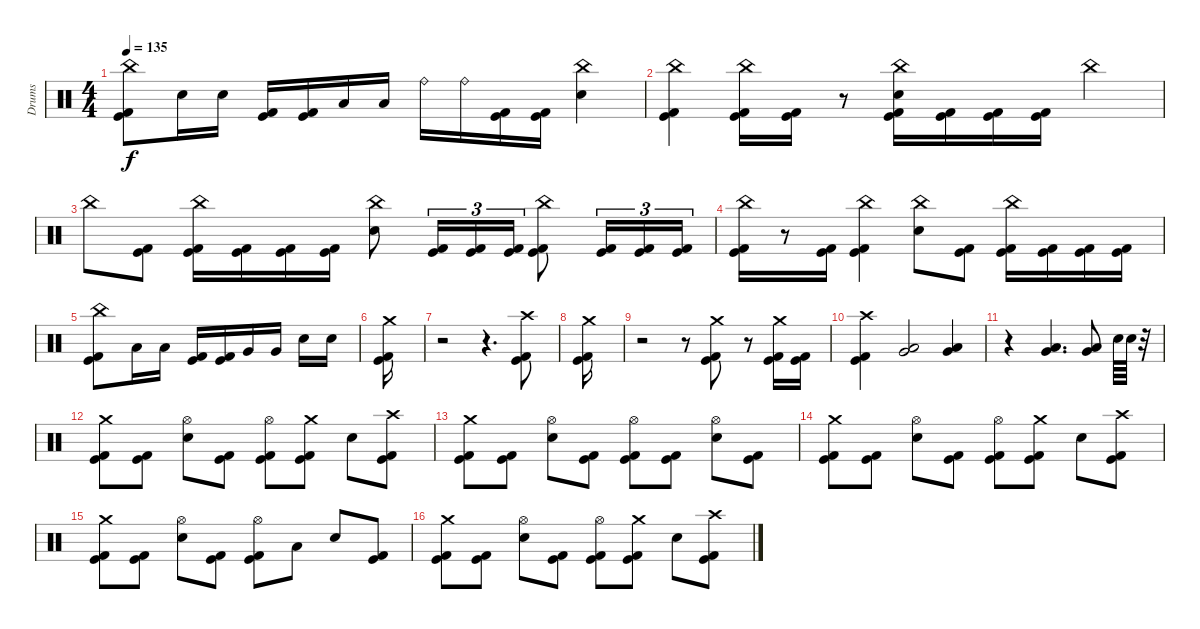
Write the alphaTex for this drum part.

\track ("Drums" "Drums") {instrument percussion}
\staff {score}
\articulation defaults
\ts (4 4)
\tempo 135
\clef neutral
\ks c
("China (hit)" "Kick (hit)" "Kick (hit) 2").8{dy f} "Electric Snare (hit)".16 "Electric Snare (hit)".16 ("Kick (hit)" "Kick (hit) 2").16 ("Kick (hit)" "Kick (hit) 2").16 "Low Tom (hit)".16 "Low Tom (hit)".16 "Ride (bell)".16 "Ride (bell)".16 ("Kick (hit)" "Kick (hit) 2").16 ("Kick (hit)" "Kick (hit) 2").16 ("China (hit)" "Electric Snare (hit)").4 |
("China (hit)" "Kick (hit)" "Kick (hit) 2").4 ("China (hit)" "Kick (hit)" "Kick (hit) 2").16 ("Kick (hit)" "Kick (hit) 2").16 r.8 ("China (hit)" "Electric Snare (hit)" "Kick (hit)" "Kick (hit) 2").16 ("Kick (hit)" "Kick (hit) 2").16 ("Kick (hit)" "Kick (hit) 2").16 ("Kick (hit)" "Kick (hit) 2").16 "China (hit)".4 |
"China (hit)".8 ("Kick (hit)" "Kick (hit) 2").8 ("China (hit)" "Kick (hit)" "Kick (hit) 2").16 ("Kick (hit)" "Kick (hit) 2").16 ("Kick (hit)" "Kick (hit) 2").16 ("Kick (hit)" "Kick (hit) 2").16 ("China (hit)" "Electric Snare (hit)").8 ("Kick (hit)" "Kick (hit) 2").16{tu (3 2)} ("Kick (hit)" "Kick (hit) 2").16{tu (3 2)} ("Kick (hit)" "Kick (hit) 2").16{tu (3 2)} ("China (hit)" "Kick (hit)" "Kick (hit) 2").8 ("Kick (hit)" "Kick (hit) 2").16{tu (3 2)} ("Kick (hit)" "Kick (hit) 2").16{tu (3 2)} ("Kick (hit)" "Kick (hit) 2").16{tu (3 2)} |
("China (hit)" "Kick (hit)" "Kick (hit) 2").16 r.8 ("Kick (hit)" "Kick (hit) 2").16 ("China (hit)" "Kick (hit)" "Kick (hit) 2").4 ("China (hit)" "Electric Snare (hit)").8 ("Kick (hit)" "Kick (hit) 2").8 ("China (hit)" "Kick (hit)" "Kick (hit) 2").16 ("Kick (hit)" "Kick (hit) 2").16 ("Kick (hit)" "Kick (hit) 2").16 ("Kick (hit)" "Kick (hit) 2").16 |
("China (hit)" "Kick (hit)" "Kick (hit) 2").8 "Low Tom (hit)".16 "Low Tom (hit)".16 ("Kick (hit)" "Kick (hit) 2").16 ("Kick (hit)" "Kick (hit) 2").16 "Very Low Tom (hit)".16 "Very Low Tom (hit)".16 "Electric Snare (hit)".16 "Electric Snare (hit)".16 |
("Crash medium (hit)" "Kick (hit)" "Kick (hit) 2").16 |
r.2 r.4{d} ("Crash high (hit)" "Kick (hit)" "Kick (hit) 2").8 |
("Crash medium (hit)" "Kick (hit)" "Kick (hit) 2").16 |
r.2 r.8 ("Crash medium (hit)" "Kick (hit)" "Kick (hit) 2").8 r.8 ("Crash medium (hit)" "Kick (hit)" "Kick (hit) 2").16 ("Kick (hit)" "Kick (hit) 2").16 |
("Crash high (hit)" "Kick (hit)" "Kick (hit) 2").4 ("Low Tom (hit)" "Very Low Tom (hit)").2 ("Low Tom (hit)" "Very Low Tom (hit)").4 |
r.4 ("Low Tom (hit)" "Very Low Tom (hit)").4{d} ("Low Tom (hit)" "Very Low Tom (hit)").8 "Electric Snare (hit)".64 "Electric Snare (hit)".64 r.32 |
("Crash medium (hit)" "Kick (hit)" "Kick (hit) 2").8 ("Kick (hit)" "Kick (hit) 2").8 ("Hi-Hat (open)" "Electric Snare (hit)").8 ("Kick (hit)" "Kick (hit) 2").8 ("Hi-Hat (open)" "Kick (hit)" "Kick (hit) 2").8 ("Crash medium (hit)" "Kick (hit)" "Kick (hit) 2").8 "Electric Snare (hit)".8 ("Crash high (hit)" "Kick (hit)" "Kick (hit) 2").8 |
("Crash medium (hit)" "Kick (hit)" "Kick (hit) 2").8 ("Kick (hit)" "Kick (hit) 2").8 ("Hi-Hat (open)" "Electric Snare (hit)").8 ("Kick (hit)" "Kick (hit) 2").8 ("Hi-Hat (open)" "Kick (hit)" "Kick (hit) 2").8 ("Kick (hit)" "Kick (hit) 2").8 ("Hi-Hat (open)" "Electric Snare (hit)").8 ("Kick (hit)" "Kick (hit) 2").8 |
("Crash medium (hit)" "Kick (hit)" "Kick (hit) 2").8 ("Kick (hit)" "Kick (hit) 2").8 ("Hi-Hat (open)" "Electric Snare (hit)").8 ("Kick (hit)" "Kick (hit) 2").8 ("Hi-Hat (open)" "Kick (hit)" "Kick (hit) 2").8 ("Crash medium (hit)" "Kick (hit)" "Kick (hit) 2").8 "Electric Snare (hit)".8 ("Crash high (hit)" "Kick (hit)" "Kick (hit) 2").8 |
("Crash medium (hit)" "Kick (hit)" "Kick (hit) 2").8 ("Kick (hit)" "Kick (hit) 2").8 ("Hi-Hat (open)" "Electric Snare (hit)").8 ("Kick (hit)" "Kick (hit) 2").8 ("Hi-Hat (open)" "Kick (hit)" "Kick (hit) 2").8 "Low Tom (hit)".8 "Electric Snare (hit)".8 ("Kick (hit)" "Kick (hit) 2").8 |
("Crash medium (hit)" "Kick (hit)" "Kick (hit) 2").8 ("Kick (hit)" "Kick (hit) 2").8 ("Hi-Hat (open)" "Electric Snare (hit)").8 ("Kick (hit)" "Kick (hit) 2").8 ("Hi-Hat (open)" "Kick (hit)" "Kick (hit) 2").8 ("Crash medium (hit)" "Kick (hit)" "Kick (hit) 2").8 "Electric Snare (hit)".8 ("Crash high (hit)" "Kick (hit)" "Kick (hit) 2").8
